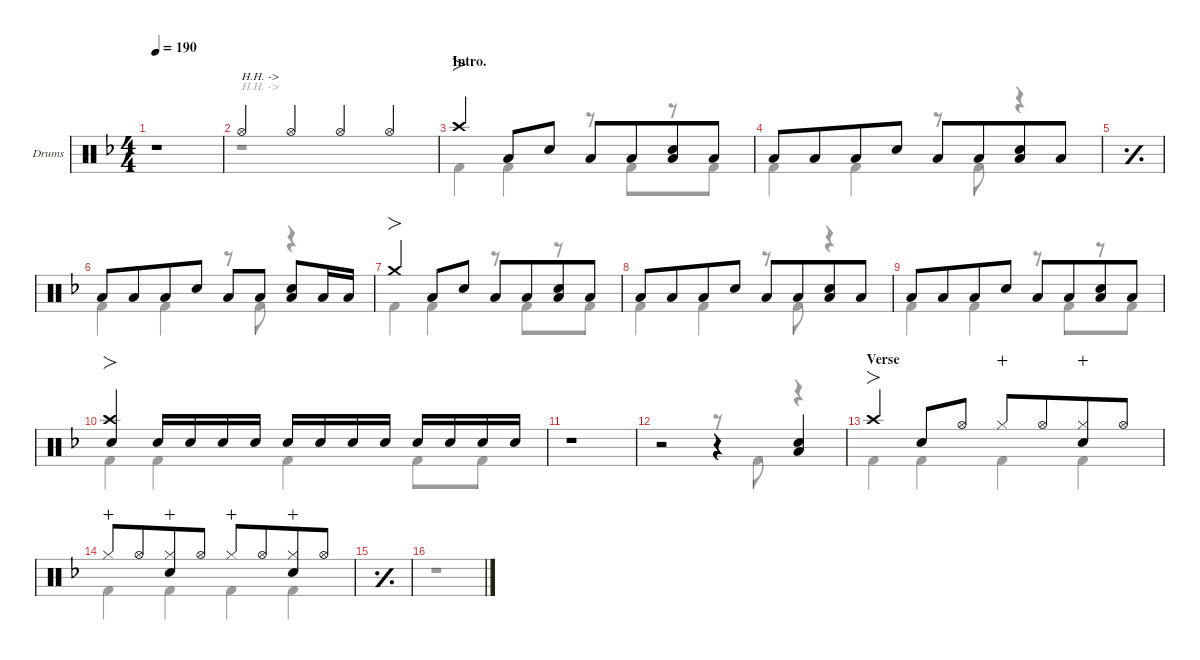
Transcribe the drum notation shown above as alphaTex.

\defaultSystemsLayout 4
\hideDynamics
\bracketExtendMode nobrackets
\firstSystemTrackNameOrientation horizontal
\track ("Drums" "Drums") {defaultSystemsLayout 4 instrument percussion}
\staff {score}
\articulation defaults
\voice
\ts (4 4)
\beaming (8 4 4)
\tempo 190
\clef neutral
\scale
0.511079
\ks dminor
r.1{dy f beam Up} |
\scale
0.488921 "Hi-Hat (open)"{acc forcenatural}.4{txt "H.H. ->" beam Up} "Hi-Hat (open)"{acc forcenatural}.4{beam Up} "Hi-Hat (open)"{acc forcenatural}.4{beam Up} "Hi-Hat (open)"{acc forcenatural}.4{beam Up} |
\section ("" "Intro.")
\scale
0.266618 "Crash high (hit)"{acc forcenatural}.4{fo beam Up} "Low Tom (hit)"{acc forcenatural}.8{beam Up} "Snare (hit) 2"{acc forcenatural}.8{beam Up} "Low Tom (hit)"{acc forcenatural}.8{beam Up} "Low Tom (hit)"{acc forcenatural}.8{beam Up} ("Low Tom (hit)"{acc forcenatural} "Snare (hit) 2"{acc forcenatural}).8{beam Up} "Low Tom (hit)"{acc forcenatural}.8{beam Up} |
\scale
0.244461 "Low Tom (hit)"{acc forcenatural}.8{beam Up} "Low Tom (hit)"{acc forcenatural}.8{beam Up} "Low Tom (hit)"{acc forcenatural}.8{beam Up} "Snare (hit) 2"{acc forcenatural}.8{beam Up} "Low Tom (hit)"{acc forcenatural}.8{beam Up} "Low Tom (hit)"{acc forcenatural}.8{beam Up} ("Low Tom (hit)"{acc forcenatural} "Snare (hit) 2"{acc forcenatural}).8{beam Up} "Low Tom (hit)"{acc forcenatural}.8{beam Up} |
\simile simple
\scale
0.24446 |
\simile none
\scale
0.244461 "Low Tom (hit)"{acc forcenatural}.8{beam Up} "Low Tom (hit)"{acc forcenatural}.8{beam Up} "Low Tom (hit)"{acc forcenatural}.8{beam Up} "Snare (hit) 2"{acc forcenatural}.8{beam Up} "Low Tom (hit)"{acc forcenatural}.8{beam Up} "Low Tom (hit)"{acc forcenatural}.8{beam Up beam split} ("Low Tom (hit)"{acc forcenatural} "Snare (hit) 2"{acc forcenatural}).8{beam Up} "Low Tom (hit)"{acc forcenatural}.16{beam Up} "Low Tom (hit)"{acc forcenatural}.16{beam Up} |
\scale
0.266618 "Crash medium (hit)"{acc forcenatural}.4{fo beam Up} "Low Tom (hit)"{acc forcenatural}.8{beam Up} "Snare (hit) 2"{acc forcenatural}.8{beam Up} "Low Tom (hit)"{acc forcenatural}.8{beam Up} "Low Tom (hit)"{acc forcenatural}.8{beam Up} ("Low Tom (hit)"{acc forcenatural} "Snare (hit) 2"{acc forcenatural}).8{beam Up} "Low Tom (hit)"{acc forcenatural}.8{beam Up} |
\scale
0.244461 "Low Tom (hit)"{acc forcenatural}.8{beam Up} "Low Tom (hit)"{acc forcenatural}.8{beam Up} "Low Tom (hit)"{acc forcenatural}.8{beam Up} "Snare (hit) 2"{acc forcenatural}.8{beam Up} "Low Tom (hit)"{acc forcenatural}.8{beam Up} "Low Tom (hit)"{acc forcenatural}.8{beam Up} ("Low Tom (hit)"{acc forcenatural} "Snare (hit) 2"{acc forcenatural}).8{beam Up} "Low Tom (hit)"{acc forcenatural}.8{beam Up} |
\scale
0.24446 "Low Tom (hit)"{acc forcenatural}.8{beam Up} "Low Tom (hit)"{acc forcenatural}.8{beam Up} "Low Tom (hit)"{acc forcenatural}.8{beam Up} "Snare (hit) 2"{acc forcenatural}.8{beam Up} "Low Tom (hit)"{acc forcenatural}.8{beam Up} "Low Tom (hit)"{acc forcenatural}.8{beam Up} ("Low Tom (hit)"{acc forcenatural} "Snare (hit) 2"{acc forcenatural}).8{beam Up} "Low Tom (hit)"{acc forcenatural}.8{beam Up} |
\scale
0.244461 ("Crash high (hit)"{acc forcenatural} "Snare (hit) 2"{acc forcenatural}).4{fo beam Up} "Snare (hit) 2"{acc forcenatural}.16{beam Up} "Snare (hit) 2"{acc forcenatural}.16{dy mp beam Up} "Snare (hit) 2"{acc forcenatural}.16{dy mf beam Up} "Snare (hit) 2"{acc forcenatural}.16{dy mp beam Up} "Snare (hit) 2"{acc forcenatural}.16{dy f beam Up} "Snare (hit) 2"{acc forcenatural}.16{dy mp beam Up} "Snare (hit) 2"{acc forcenatural}.16{dy mf beam Up} "Snare (hit) 2"{acc forcenatural}.16{dy mp beam Up beam split} "Snare (hit) 2"{acc forcenatural}.16{dy f beam Up} "Snare (hit) 2"{acc forcenatural}.16{dy mp beam Up} "Snare (hit) 2"{acc forcenatural}.16{dy mf beam Up} "Snare (hit) 2"{acc forcenatural}.16{dy mp beam Up} |
\scale
0.511079 r.1{beam Up} |
\scale
0.488921 r.2{beam Up} r.4{beam Up} ("Low Tom (hit)"{acc forcenatural} "Snare (hit) 2"{acc forcenatural}).4{dy f beam Up} |
\section ("" "Verse")
\scale
0.266618 "Crash high (hit)"{acc forcenatural}.4{fo beam Up} "Snare (hit) 2"{acc forcenatural}.8{beam Up} "Hi-Hat (open)"{acc forcenatural}.8{beam Up} "Hi-Hat (closed)"{acc forcenatural}.8{dy mp wahc beam Up} "Hi-Hat (open)"{acc forcenatural}.8{dy f beam Up} ("Hi-Hat (closed)"{acc forcenatural} "Snare (hit) 2"{acc forcenatural}).8{wahc beam Up} "Hi-Hat (open)"{acc forcenatural}.8{beam Up} |
\scale
0.244461 "Hi-Hat (closed)"{acc forcenatural}.8{dy mp wahc beam Up} "Hi-Hat (open)"{acc forcenatural}.8{dy f beam Up} ("Hi-Hat (closed)"{acc forcenatural} "Snare (hit) 2"{acc forcenatural}).8{wahc beam Up} "Hi-Hat (open)"{acc forcenatural}.8{beam Up} "Hi-Hat (closed)"{acc forcenatural}.8{dy mp wahc beam Up} "Hi-Hat (open)"{acc forcenatural}.8{dy f beam Up} ("Hi-Hat (closed)"{acc forcenatural} "Snare (hit) 2"{acc forcenatural}).8{wahc beam Up} "Hi-Hat (open)"{acc forcenatural}.8{beam Up} |
\simile simple
\scale
0.24446 |
\scale
0.244461
\voice
\clef neutral
\ottava regular
\simile none
\scale
0.511079
\ks dminor
r.1{dy f beam Down} |
\scale
0.488921 r.1{txt "H.H. ->" beam Down} |
\scale
0.266618 "Kick (hit) 2"{acc forcenatural}.4{beam Down} "Kick (hit) 2"{acc forcenatural}.4{beam Down} r.8{beam Down} "Kick (hit) 2"{acc forcenatural}.8{beam Down} r.8{beam Down} "Kick (hit) 2"{acc forcenatural}.8{beam Down} |
\scale
0.244461 "Kick (hit) 2"{acc forcenatural}.4{beam Down} "Kick (hit) 2"{acc forcenatural}.4{beam Down} r.8{beam Down} "Kick (hit) 2"{acc forcenatural}.8{beam Down} r.4{beam Down} |
\simile simple
\scale
0.24446 |
\simile none
\scale
0.244461 "Kick (hit) 2"{acc forcenatural}.4{beam Down} "Kick (hit) 2"{acc forcenatural}.4{beam Down} r.8{beam Down} "Kick (hit) 2"{acc forcenatural}.8{beam Down} r.4{beam Down} |
\scale
0.266618 "Kick (hit) 2"{acc forcenatural}.4{beam Down} "Kick (hit) 2"{acc forcenatural}.4{beam Down} r.8{beam Down} "Kick (hit) 2"{acc forcenatural}.8{beam Down} r.8{beam Down} "Kick (hit) 2"{acc forcenatural}.8{beam Down} |
\scale
0.244461 "Kick (hit) 2"{acc forcenatural}.4{beam Down} "Kick (hit) 2"{acc forcenatural}.4{beam Down} r.8{beam Down} "Kick (hit) 2"{acc forcenatural}.8{beam Down} r.4{beam Down} |
\scale
0.24446 "Kick (hit) 2"{acc forcenatural}.4{beam Down} "Kick (hit) 2"{acc forcenatural}.4{beam Down} r.8{beam Down} "Kick (hit) 2"{acc forcenatural}.8{beam Down} r.8{beam Down} "Kick (hit) 2"{acc forcenatural}.8{beam Down} |
\scale
0.244461 "Kick (hit) 2"{acc forcenatural}.4{beam Down} "Kick (hit) 2"{acc forcenatural}.4{beam Down} "Kick (hit) 2"{acc forcenatural}.4{beam Down} "Kick (hit) 2"{acc forcenatural}.8{beam Down} "Kick (hit) 2"{acc forcenatural}.8{beam Down} |
\scale
0.511079 r.1{beam Down} |
\scale
0.488921 r.2{beam Down} r.8{beam Down} "Kick (hit) 2"{acc forcenatural}.8{beam Down} r.4{beam Down} |
\scale
0.266618 "Kick (hit) 2"{acc forcenatural}.4{beam Down} "Kick (hit) 2"{acc forcenatural}.4{beam Down} "Kick (hit) 2"{acc forcenatural}.4{beam Down} "Kick (hit) 2"{acc forcenatural}.4{beam Down} |
\scale
0.244461 "Kick (hit) 2"{acc forcenatural}.4{beam Down} "Kick (hit) 2"{acc forcenatural}.4{beam Down} "Kick (hit) 2"{acc forcenatural}.4{beam Down} "Kick (hit) 2"{acc forcenatural}.4{beam Down} |
\simile simple
\scale
0.24446 |
\scale
0.244461
